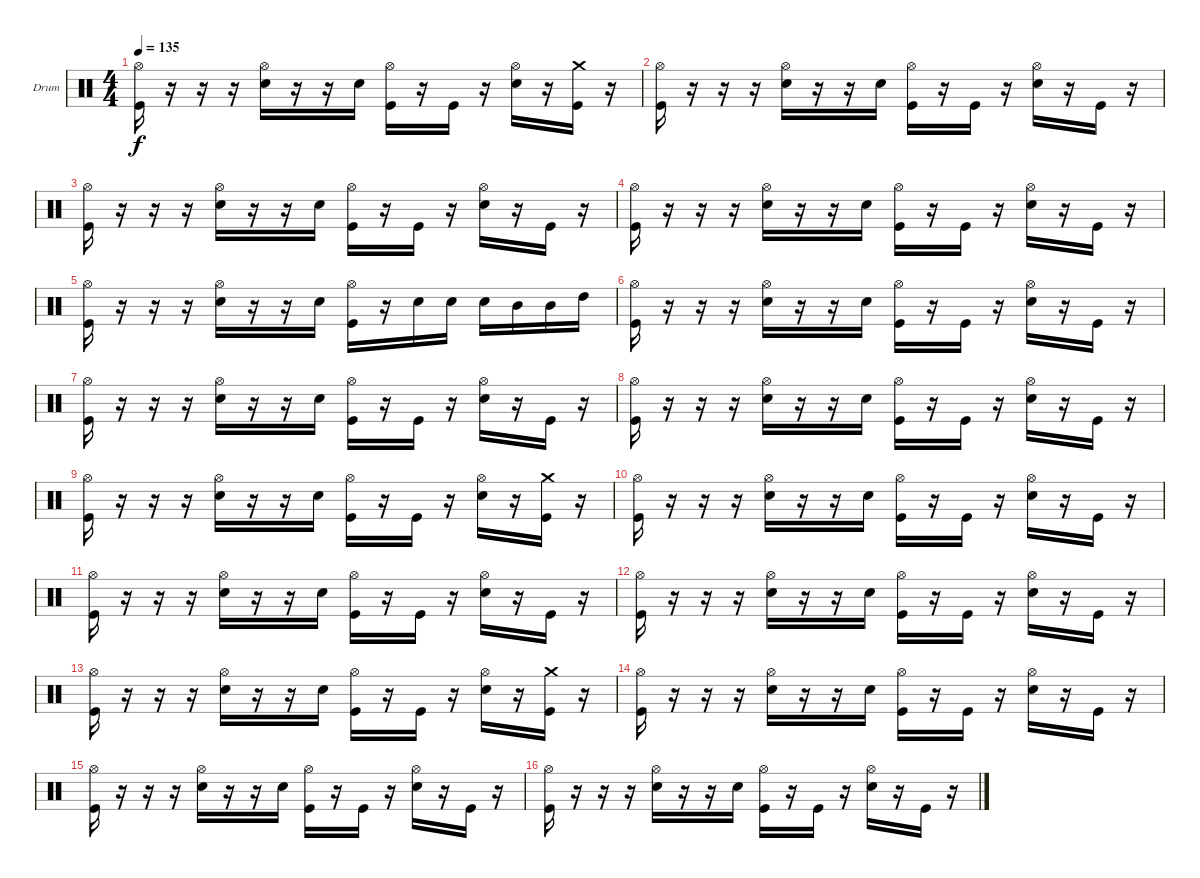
\defaultSystemsLayout 4
\bracketExtendMode groupsimilarinstruments
\firstSystemTrackNameOrientation horizontal
\otherSystemsTrackNameOrientation horizontal
\track ("Drum" "Drum") {instrument percussion}
\staff {score}
\articulation defaults
\ts (4 4)
\tempo 135
\clef neutral
\ks c
("Hi-Hat (open)" "Kick (hit)").16{dy f} r.16 r.16 r.16 ("Hi-Hat (open)" "Snare (hit) 2").16 r.16 r.16 "Snare (hit) 2".16 ("Hi-Hat (open)" "Kick (hit)").16 r.16 "Kick (hit)".16 r.16 ("Hi-Hat (open)" "Snare (hit) 2").16 r.16 ("Crash medium (hit)" "Kick (hit)").16 r.16 |
("Hi-Hat (open)" "Kick (hit)").16 r.16 r.16 r.16 ("Hi-Hat (open)" "Snare (hit) 2").16 r.16 r.16 "Snare (hit) 2".16 ("Hi-Hat (open)" "Kick (hit)").16 r.16 "Kick (hit)".16 r.16 ("Hi-Hat (open)" "Snare (hit) 2").16 r.16 "Kick (hit)".16 r.16 |
("Hi-Hat (open)" "Kick (hit)").16 r.16 r.16 r.16 ("Hi-Hat (open)" "Snare (hit) 2").16 r.16 r.16 "Snare (hit) 2".16 ("Hi-Hat (open)" "Kick (hit)").16 r.16 "Kick (hit)".16 r.16 ("Hi-Hat (open)" "Snare (hit) 2").16 r.16 "Kick (hit)".16 r.16 |
("Hi-Hat (open)" "Kick (hit)").16 r.16 r.16 r.16 ("Hi-Hat (open)" "Snare (hit) 2").16 r.16 r.16 "Snare (hit) 2".16 ("Hi-Hat (open)" "Kick (hit)").16 r.16 "Kick (hit)".16 r.16 ("Hi-Hat (open)" "Snare (hit) 2").16 r.16 "Kick (hit)".16 r.16 |
("Hi-Hat (open)" "Kick (hit)").16 r.16 r.16 r.16 ("Hi-Hat (open)" "Snare (hit) 2").16 r.16 r.16 "Snare (hit) 2".16 ("Hi-Hat (open)" "Kick (hit)").16 r.16 "Snare (hit) 2".16 "Snare (hit) 2".16 "Snare (hit) 2".16 "Mid Tom (hit)".16 "Mid Tom (hit)".16 "High Tom (hit)".16 |
("Hi-Hat (open)" "Kick (hit)").16 r.16 r.16 r.16 ("Hi-Hat (open)" "Snare (hit) 2").16 r.16 r.16 "Snare (hit) 2".16 ("Hi-Hat (open)" "Kick (hit)").16 r.16 "Kick (hit)".16 r.16 ("Hi-Hat (open)" "Snare (hit) 2").16 r.16 "Kick (hit)".16 r.16 |
("Hi-Hat (open)" "Kick (hit)").16 r.16 r.16 r.16 ("Hi-Hat (open)" "Snare (hit) 2").16 r.16 r.16 "Snare (hit) 2".16 ("Hi-Hat (open)" "Kick (hit)").16 r.16 "Kick (hit)".16 r.16 ("Hi-Hat (open)" "Snare (hit) 2").16 r.16 "Kick (hit)".16 r.16 |
("Hi-Hat (open)" "Kick (hit)").16 r.16 r.16 r.16 ("Hi-Hat (open)" "Snare (hit) 2").16 r.16 r.16 "Snare (hit) 2".16 ("Hi-Hat (open)" "Kick (hit)").16 r.16 "Kick (hit)".16 r.16 ("Hi-Hat (open)" "Snare (hit) 2").16 r.16 "Kick (hit)".16 r.16 |
("Hi-Hat (open)" "Kick (hit)").16 r.16 r.16 r.16 ("Hi-Hat (open)" "Snare (hit) 2").16 r.16 r.16 "Snare (hit) 2".16 ("Hi-Hat (open)" "Kick (hit)").16 r.16 "Kick (hit)".16 r.16 ("Hi-Hat (open)" "Snare (hit) 2").16 r.16 ("Crash medium (hit)" "Kick (hit)").16 r.16 |
("Hi-Hat (open)" "Kick (hit)").16 r.16 r.16 r.16 ("Hi-Hat (open)" "Snare (hit) 2").16 r.16 r.16 "Snare (hit) 2".16 ("Hi-Hat (open)" "Kick (hit)").16 r.16 "Kick (hit)".16 r.16 ("Hi-Hat (open)" "Snare (hit) 2").16 r.16 "Kick (hit)".16 r.16 |
("Hi-Hat (open)" "Kick (hit)").16 r.16 r.16 r.16 ("Hi-Hat (open)" "Snare (hit) 2").16 r.16 r.16 "Snare (hit) 2".16 ("Hi-Hat (open)" "Kick (hit)").16 r.16 "Kick (hit)".16 r.16 ("Hi-Hat (open)" "Snare (hit) 2").16 r.16 "Kick (hit)".16 r.16 |
("Hi-Hat (open)" "Kick (hit)").16 r.16 r.16 r.16 ("Hi-Hat (open)" "Snare (hit) 2").16 r.16 r.16 "Snare (hit) 2".16 ("Hi-Hat (open)" "Kick (hit)").16 r.16 "Kick (hit)".16 r.16 ("Hi-Hat (open)" "Snare (hit) 2").16 r.16 "Kick (hit)".16 r.16 |
("Hi-Hat (open)" "Kick (hit)").16 r.16 r.16 r.16 ("Hi-Hat (open)" "Snare (hit) 2").16 r.16 r.16 "Snare (hit) 2".16 ("Hi-Hat (open)" "Kick (hit)").16 r.16 "Kick (hit)".16 r.16 ("Hi-Hat (open)" "Snare (hit) 2").16 r.16 ("Crash medium (hit)" "Kick (hit)").16 r.16 |
("Hi-Hat (open)" "Kick (hit)").16 r.16 r.16 r.16 ("Hi-Hat (open)" "Snare (hit) 2").16 r.16 r.16 "Snare (hit) 2".16 ("Hi-Hat (open)" "Kick (hit)").16 r.16 "Kick (hit)".16 r.16 ("Hi-Hat (open)" "Snare (hit) 2").16 r.16 "Kick (hit)".16 r.16 |
("Hi-Hat (open)" "Kick (hit)").16 r.16 r.16 r.16 ("Hi-Hat (open)" "Snare (hit) 2").16 r.16 r.16 "Snare (hit) 2".16 ("Hi-Hat (open)" "Kick (hit)").16 r.16 "Kick (hit)".16 r.16 ("Hi-Hat (open)" "Snare (hit) 2").16 r.16 "Kick (hit)".16 r.16 |
("Hi-Hat (open)" "Kick (hit)").16 r.16 r.16 r.16 ("Hi-Hat (open)" "Snare (hit) 2").16 r.16 r.16 "Snare (hit) 2".16 ("Hi-Hat (open)" "Kick (hit)").16 r.16 "Kick (hit)".16 r.16 ("Hi-Hat (open)" "Snare (hit) 2").16 r.16 "Kick (hit)".16 r.16
